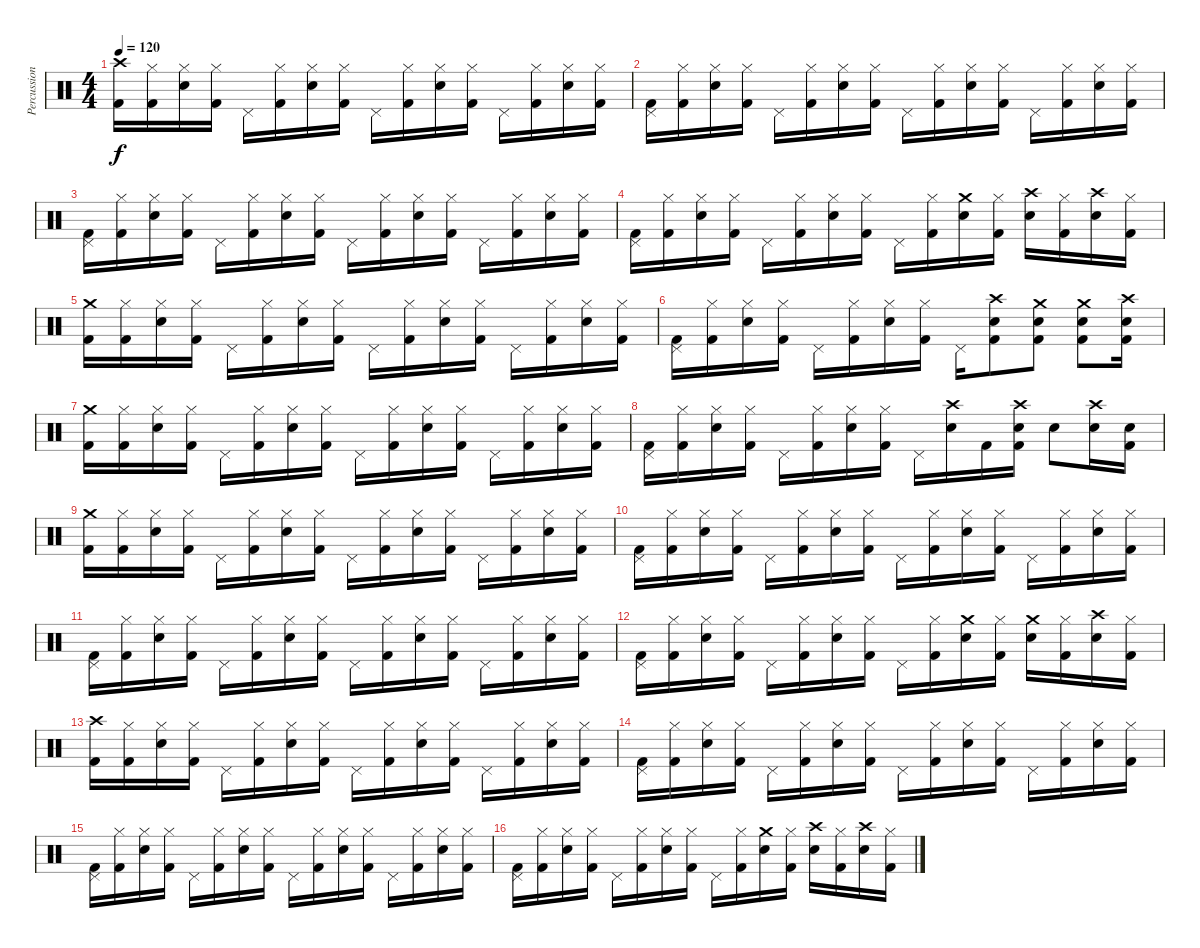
\track ("Percussion" "Percussion") {instrument percussion}
\staff {score}
\articulation defaults
\ts (4 4)
\tempo 120
\clef neutral
\ks c
("Crash high (hit)" "Kick (hit) 2").16{dy f} ("Hi-Hat (closed)" "Kick (hit) 2").16 ("Hi-Hat (closed)" "Snare (hit) 2").16 ("Hi-Hat (closed)" "Kick (hit) 2").16 "Pedal Hi-Hat (hit)".16 ("Hi-Hat (closed)" "Kick (hit) 2").16 ("Hi-Hat (closed)" "Snare (hit) 2").16 ("Hi-Hat (closed)" "Kick (hit) 2").16 "Pedal Hi-Hat (hit)".16 ("Hi-Hat (closed)" "Kick (hit) 2").16 ("Hi-Hat (closed)" "Snare (hit) 2").16 ("Hi-Hat (closed)" "Kick (hit) 2").16 "Pedal Hi-Hat (hit)".16 ("Hi-Hat (closed)" "Kick (hit) 2").16 ("Hi-Hat (closed)" "Snare (hit) 2").16 ("Hi-Hat (closed)" "Kick (hit) 2").16 |
("Pedal Hi-Hat (hit)" "Kick (hit) 2").16 ("Hi-Hat (closed)" "Kick (hit) 2").16 ("Hi-Hat (closed)" "Snare (hit) 2").16 ("Hi-Hat (closed)" "Kick (hit) 2").16 "Pedal Hi-Hat (hit)".16 ("Hi-Hat (closed)" "Kick (hit) 2").16 ("Hi-Hat (closed)" "Snare (hit) 2").16 ("Hi-Hat (closed)" "Kick (hit) 2").16 "Pedal Hi-Hat (hit)".16 ("Hi-Hat (closed)" "Kick (hit) 2").16 ("Hi-Hat (closed)" "Snare (hit) 2").16 ("Hi-Hat (closed)" "Kick (hit) 2").16 "Pedal Hi-Hat (hit)".16 ("Hi-Hat (closed)" "Kick (hit) 2").16 ("Hi-Hat (closed)" "Snare (hit) 2").16 ("Hi-Hat (closed)" "Kick (hit) 2").16 |
("Pedal Hi-Hat (hit)" "Kick (hit) 2").16 ("Hi-Hat (closed)" "Kick (hit) 2").16 ("Hi-Hat (closed)" "Snare (hit) 2").16 ("Hi-Hat (closed)" "Kick (hit) 2").16 "Pedal Hi-Hat (hit)".16 ("Hi-Hat (closed)" "Kick (hit) 2").16 ("Hi-Hat (closed)" "Snare (hit) 2").16 ("Hi-Hat (closed)" "Kick (hit) 2").16 "Pedal Hi-Hat (hit)".16 ("Hi-Hat (closed)" "Kick (hit) 2").16 ("Hi-Hat (closed)" "Snare (hit) 2").16 ("Hi-Hat (closed)" "Kick (hit) 2").16 "Pedal Hi-Hat (hit)".16 ("Hi-Hat (closed)" "Kick (hit) 2").16 ("Hi-Hat (closed)" "Snare (hit) 2").16 ("Hi-Hat (closed)" "Kick (hit) 2").16 |
("Pedal Hi-Hat (hit)" "Kick (hit) 2").16 ("Hi-Hat (closed)" "Kick (hit) 2").16 ("Hi-Hat (closed)" "Snare (hit) 2").16 ("Hi-Hat (closed)" "Kick (hit) 2").16 "Pedal Hi-Hat (hit)".16 ("Hi-Hat (closed)" "Kick (hit) 2").16 ("Hi-Hat (closed)" "Snare (hit) 2").16 ("Hi-Hat (closed)" "Kick (hit) 2").16 "Pedal Hi-Hat (hit)".16 ("Hi-Hat (closed)" "Kick (hit) 2").16 ("Crash medium (hit)" "Snare (hit) 2").16 ("Hi-Hat (closed)" "Kick (hit) 2").16 ("Crash high (hit)" "Snare (hit) 2").16 ("Hi-Hat (closed)" "Kick (hit) 2").16 ("Crash high (hit)" "Snare (hit) 2").16 ("Hi-Hat (closed)" "Kick (hit) 2").16 |
("Crash medium (hit)" "Kick (hit) 2").16 ("Hi-Hat (closed)" "Kick (hit) 2").16 ("Hi-Hat (closed)" "Snare (hit) 2").16 ("Hi-Hat (closed)" "Kick (hit) 2").16 "Pedal Hi-Hat (hit)".16 ("Hi-Hat (closed)" "Kick (hit) 2").16 ("Hi-Hat (closed)" "Snare (hit) 2").16 ("Hi-Hat (closed)" "Kick (hit) 2").16 "Pedal Hi-Hat (hit)".16 ("Hi-Hat (closed)" "Kick (hit) 2").16 ("Hi-Hat (closed)" "Snare (hit) 2").16 ("Hi-Hat (closed)" "Kick (hit) 2").16 "Pedal Hi-Hat (hit)".16 ("Hi-Hat (closed)" "Kick (hit) 2").16 ("Hi-Hat (closed)" "Snare (hit) 2").16 ("Hi-Hat (closed)" "Kick (hit) 2").16 |
("Pedal Hi-Hat (hit)" "Kick (hit) 2").16 ("Hi-Hat (closed)" "Kick (hit) 2").16 ("Hi-Hat (closed)" "Snare (hit) 2").16 ("Hi-Hat (closed)" "Kick (hit) 2").16 "Pedal Hi-Hat (hit)".16 ("Hi-Hat (closed)" "Kick (hit) 2").16 ("Hi-Hat (closed)" "Snare (hit) 2").16 ("Hi-Hat (closed)" "Kick (hit) 2").16 "Pedal Hi-Hat (hit)".16 ("Crash high (hit)" "Snare (hit) 2" "Kick (hit) 2").8 ("Crash medium (hit)" "Snare (hit) 2" "Kick (hit) 2").8 ("Crash medium (hit)" "Snare (hit) 2" "Kick (hit) 2").8 ("Crash high (hit)" "Snare (hit) 2" "Kick (hit) 2").16 |
("Crash medium (hit)" "Kick (hit) 2").16 ("Hi-Hat (closed)" "Kick (hit) 2").16 ("Hi-Hat (closed)" "Snare (hit) 2").16 ("Hi-Hat (closed)" "Kick (hit) 2").16 "Pedal Hi-Hat (hit)".16 ("Hi-Hat (closed)" "Kick (hit) 2").16 ("Hi-Hat (closed)" "Snare (hit) 2").16 ("Hi-Hat (closed)" "Kick (hit) 2").16 "Pedal Hi-Hat (hit)".16 ("Hi-Hat (closed)" "Kick (hit) 2").16 ("Hi-Hat (closed)" "Snare (hit) 2").16 ("Hi-Hat (closed)" "Kick (hit) 2").16 "Pedal Hi-Hat (hit)".16 ("Hi-Hat (closed)" "Kick (hit) 2").16 ("Hi-Hat (closed)" "Snare (hit) 2").16 ("Hi-Hat (closed)" "Kick (hit) 2").16 |
("Pedal Hi-Hat (hit)" "Kick (hit) 2").16 ("Hi-Hat (closed)" "Kick (hit) 2").16 ("Hi-Hat (closed)" "Snare (hit) 2").16 ("Hi-Hat (closed)" "Kick (hit) 2").16 "Pedal Hi-Hat (hit)".16 ("Hi-Hat (closed)" "Kick (hit) 2").16 ("Hi-Hat (closed)" "Snare (hit) 2").16 ("Hi-Hat (closed)" "Kick (hit) 2").16 "Pedal Hi-Hat (hit)".16 ("Crash high (hit)" "Electric Snare (hit)").16 "Kick (hit) 2".16 ("Crash high (hit)" "Electric Snare (hit)" "Kick (hit) 2").16 "Electric Snare (hit)".8 ("Crash high (hit)" "Electric Snare (hit)").16 ("Electric Snare (hit)" "Kick (hit) 2").16 |
("Crash medium (hit)" "Kick (hit) 2").16 ("Hi-Hat (closed)" "Kick (hit) 2").16 ("Hi-Hat (closed)" "Snare (hit) 2").16 ("Hi-Hat (closed)" "Kick (hit) 2").16 "Pedal Hi-Hat (hit)".16 ("Hi-Hat (closed)" "Kick (hit) 2").16 ("Hi-Hat (closed)" "Snare (hit) 2").16 ("Hi-Hat (closed)" "Kick (hit) 2").16 "Pedal Hi-Hat (hit)".16 ("Hi-Hat (closed)" "Kick (hit) 2").16 ("Hi-Hat (closed)" "Snare (hit) 2").16 ("Hi-Hat (closed)" "Kick (hit) 2").16 "Pedal Hi-Hat (hit)".16 ("Hi-Hat (closed)" "Kick (hit) 2").16 ("Hi-Hat (closed)" "Snare (hit) 2").16 ("Hi-Hat (closed)" "Kick (hit) 2").16 |
("Pedal Hi-Hat (hit)" "Kick (hit) 2").16 ("Hi-Hat (closed)" "Kick (hit) 2").16 ("Hi-Hat (closed)" "Snare (hit) 2").16 ("Hi-Hat (closed)" "Kick (hit) 2").16 "Pedal Hi-Hat (hit)".16 ("Hi-Hat (closed)" "Kick (hit) 2").16 ("Hi-Hat (closed)" "Snare (hit) 2").16 ("Hi-Hat (closed)" "Kick (hit) 2").16 "Pedal Hi-Hat (hit)".16 ("Hi-Hat (closed)" "Kick (hit) 2").16 ("Hi-Hat (closed)" "Snare (hit) 2").16 ("Hi-Hat (closed)" "Kick (hit) 2").16 "Pedal Hi-Hat (hit)".16 ("Hi-Hat (closed)" "Kick (hit) 2").16 ("Hi-Hat (closed)" "Snare (hit) 2").16 ("Hi-Hat (closed)" "Kick (hit) 2").16 |
("Pedal Hi-Hat (hit)" "Kick (hit) 2").16 ("Hi-Hat (closed)" "Kick (hit) 2").16 ("Hi-Hat (closed)" "Snare (hit) 2").16 ("Hi-Hat (closed)" "Kick (hit) 2").16 "Pedal Hi-Hat (hit)".16 ("Hi-Hat (closed)" "Kick (hit) 2").16 ("Hi-Hat (closed)" "Snare (hit) 2").16 ("Hi-Hat (closed)" "Kick (hit) 2").16 "Pedal Hi-Hat (hit)".16 ("Hi-Hat (closed)" "Kick (hit) 2").16 ("Hi-Hat (closed)" "Snare (hit) 2").16 ("Hi-Hat (closed)" "Kick (hit) 2").16 "Pedal Hi-Hat (hit)".16 ("Hi-Hat (closed)" "Kick (hit) 2").16 ("Hi-Hat (closed)" "Snare (hit) 2").16 ("Hi-Hat (closed)" "Kick (hit) 2").16 |
("Pedal Hi-Hat (hit)" "Kick (hit) 2").16 ("Hi-Hat (closed)" "Kick (hit) 2").16 ("Hi-Hat (closed)" "Snare (hit) 2").16 ("Hi-Hat (closed)" "Kick (hit) 2").16 "Pedal Hi-Hat (hit)".16 ("Hi-Hat (closed)" "Kick (hit) 2").16 ("Hi-Hat (closed)" "Snare (hit) 2").16 ("Hi-Hat (closed)" "Kick (hit) 2").16 "Pedal Hi-Hat (hit)".16 ("Hi-Hat (closed)" "Kick (hit) 2").16 ("Crash medium (hit)" "Snare (hit) 2").16 ("Hi-Hat (closed)" "Kick (hit) 2").16 ("Crash medium (hit)" "Snare (hit) 2").16 ("Hi-Hat (closed)" "Kick (hit) 2").16 ("Crash high (hit)" "Snare (hit) 2").16 ("Hi-Hat (closed)" "Kick (hit) 2").16 |
("Crash high (hit)" "Kick (hit) 2").16 ("Hi-Hat (closed)" "Kick (hit) 2").16 ("Hi-Hat (closed)" "Snare (hit) 2").16 ("Hi-Hat (closed)" "Kick (hit) 2").16 "Pedal Hi-Hat (hit)".16 ("Hi-Hat (closed)" "Kick (hit) 2").16 ("Hi-Hat (closed)" "Snare (hit) 2").16 ("Hi-Hat (closed)" "Kick (hit) 2").16 "Pedal Hi-Hat (hit)".16 ("Hi-Hat (closed)" "Kick (hit) 2").16 ("Hi-Hat (closed)" "Snare (hit) 2").16 ("Hi-Hat (closed)" "Kick (hit) 2").16 "Pedal Hi-Hat (hit)".16 ("Hi-Hat (closed)" "Kick (hit) 2").16 ("Hi-Hat (closed)" "Snare (hit) 2").16 ("Hi-Hat (closed)" "Kick (hit) 2").16 |
("Pedal Hi-Hat (hit)" "Kick (hit) 2").16 ("Hi-Hat (closed)" "Kick (hit) 2").16 ("Hi-Hat (closed)" "Snare (hit) 2").16 ("Hi-Hat (closed)" "Kick (hit) 2").16 "Pedal Hi-Hat (hit)".16 ("Hi-Hat (closed)" "Kick (hit) 2").16 ("Hi-Hat (closed)" "Snare (hit) 2").16 ("Hi-Hat (closed)" "Kick (hit) 2").16 "Pedal Hi-Hat (hit)".16 ("Hi-Hat (closed)" "Kick (hit) 2").16 ("Hi-Hat (closed)" "Snare (hit) 2").16 ("Hi-Hat (closed)" "Kick (hit) 2").16 "Pedal Hi-Hat (hit)".16 ("Hi-Hat (closed)" "Kick (hit) 2").16 ("Hi-Hat (closed)" "Snare (hit) 2").16 ("Hi-Hat (closed)" "Kick (hit) 2").16 |
("Pedal Hi-Hat (hit)" "Kick (hit) 2").16 ("Hi-Hat (closed)" "Kick (hit) 2").16 ("Hi-Hat (closed)" "Snare (hit) 2").16 ("Hi-Hat (closed)" "Kick (hit) 2").16 "Pedal Hi-Hat (hit)".16 ("Hi-Hat (closed)" "Kick (hit) 2").16 ("Hi-Hat (closed)" "Snare (hit) 2").16 ("Hi-Hat (closed)" "Kick (hit) 2").16 "Pedal Hi-Hat (hit)".16 ("Hi-Hat (closed)" "Kick (hit) 2").16 ("Hi-Hat (closed)" "Snare (hit) 2").16 ("Hi-Hat (closed)" "Kick (hit) 2").16 "Pedal Hi-Hat (hit)".16 ("Hi-Hat (closed)" "Kick (hit) 2").16 ("Hi-Hat (closed)" "Snare (hit) 2").16 ("Hi-Hat (closed)" "Kick (hit) 2").16 |
("Pedal Hi-Hat (hit)" "Kick (hit) 2").16 ("Hi-Hat (closed)" "Kick (hit) 2").16 ("Hi-Hat (closed)" "Snare (hit) 2").16 ("Hi-Hat (closed)" "Kick (hit) 2").16 "Pedal Hi-Hat (hit)".16 ("Hi-Hat (closed)" "Kick (hit) 2").16 ("Hi-Hat (closed)" "Snare (hit) 2").16 ("Hi-Hat (closed)" "Kick (hit) 2").16 "Pedal Hi-Hat (hit)".16 ("Hi-Hat (closed)" "Kick (hit) 2").16 ("Crash medium (hit)" "Snare (hit) 2").16 ("Hi-Hat (closed)" "Kick (hit) 2").16 ("Crash high (hit)" "Snare (hit) 2").16 ("Hi-Hat (closed)" "Kick (hit) 2").16 ("Crash high (hit)" "Snare (hit) 2").16 ("Hi-Hat (closed)" "Kick (hit) 2").16
